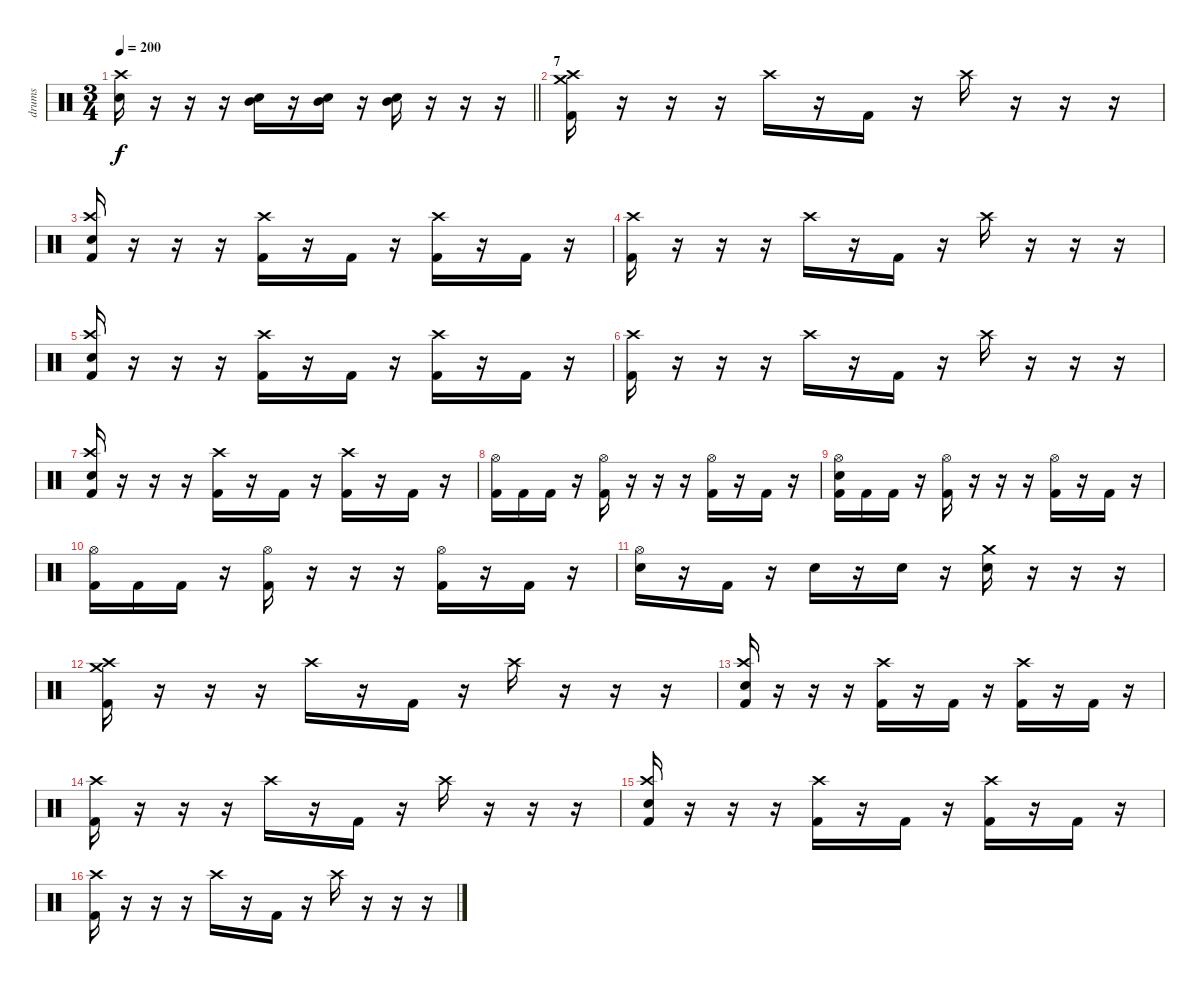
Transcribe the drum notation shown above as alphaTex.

\track ("drums" "drums") {instrument percussion}
\staff {score}
\articulation defaults
\ts (3 4)
\tempo 200
\clef neutral
\barLineRight lightlight
\ks c
("Electric Snare (hit)" "Crash high (hit)").16{dy f} r.16 r.16 r.16 ("Electric Snare (hit)" "Mid Tom (hit)").16 r.16 ("Electric Snare (hit)" "Mid Tom (hit)").16 r.16 ("Electric Snare (hit)" "Mid Tom (hit)").16 r.16 r.16 r.16 |
\section ("" "7")
("Kick (hit) 2" "Crash high (hit)" "Crash medium (hit)").16 r.16 r.16 r.16 "Crash high (hit)".16 r.16 "Kick (hit) 2".16 r.16 "Crash high (hit)".16 r.16 r.16 r.16 |
("Crash high (hit)" "Electric Snare (hit)" "Kick (hit) 2").16 r.16 r.16 r.16 ("Crash high (hit)" "Kick (hit) 2").16 r.16 "Kick (hit) 2".16 r.16 ("Crash high (hit)" "Kick (hit) 2").16 r.16 "Kick (hit) 2".16 r.16 |
("Kick (hit) 2" "Crash high (hit)").16 r.16 r.16 r.16 "Crash high (hit)".16 r.16 "Kick (hit) 2".16 r.16 "Crash high (hit)".16 r.16 r.16 r.16 |
("Crash high (hit)" "Electric Snare (hit)" "Kick (hit) 2").16 r.16 r.16 r.16 ("Crash high (hit)" "Kick (hit) 2").16 r.16 "Kick (hit) 2".16 r.16 ("Crash high (hit)" "Kick (hit) 2").16 r.16 "Kick (hit) 2".16 r.16 |
("Kick (hit) 2" "Crash high (hit)").16 r.16 r.16 r.16 "Crash high (hit)".16 r.16 "Kick (hit) 2".16 r.16 "Crash high (hit)".16 r.16 r.16 r.16 |
("Crash high (hit)" "Electric Snare (hit)" "Kick (hit) 2").16 r.16 r.16 r.16 ("Crash high (hit)" "Kick (hit) 2").16 r.16 "Kick (hit) 2".16 r.16 ("Crash high (hit)" "Kick (hit) 2").16 r.16 "Kick (hit) 2".16 r.16 |
("Kick (hit) 2" "Hi-Hat (open)").16 "Kick (hit) 2".16 "Kick (hit) 2".16 r.16 ("Hi-Hat (open)" "Kick (hit) 2").16 r.16 r.16 r.16 ("Hi-Hat (open)" "Kick (hit) 2").16 r.16 "Kick (hit) 2".16 r.16 |
("Kick (hit) 2" "Hi-Hat (open)" "Electric Snare (hit)").16 "Kick (hit) 2".16 "Kick (hit) 2".16 r.16 ("Hi-Hat (open)" "Kick (hit) 2").16 r.16 r.16 r.16 ("Hi-Hat (open)" "Kick (hit) 2").16 r.16 "Kick (hit) 2".16 r.16 |
("Kick (hit) 2" "Hi-Hat (open)").16 "Kick (hit) 2".16 "Kick (hit) 2".16 r.16 ("Hi-Hat (open)" "Kick (hit) 2").16 r.16 r.16 r.16 ("Hi-Hat (open)" "Kick (hit) 2").16 r.16 "Kick (hit) 2".16 r.16 |
("Electric Snare (hit)" "Hi-Hat (open)").16 r.16 "Kick (hit) 2".16 r.16 "Electric Snare (hit)".16 r.16 "Electric Snare (hit)".16 r.16 ("Crash medium (hit)" "Electric Snare (hit)").16 r.16 r.16 r.16 |
("Kick (hit) 2" "Crash high (hit)" "Crash medium (hit)").16 r.16 r.16 r.16 "Crash high (hit)".16 r.16 "Kick (hit) 2".16 r.16 "Crash high (hit)".16 r.16 r.16 r.16 |
("Crash high (hit)" "Electric Snare (hit)" "Kick (hit) 2").16 r.16 r.16 r.16 ("Crash high (hit)" "Kick (hit) 2").16 r.16 "Kick (hit) 2".16 r.16 ("Crash high (hit)" "Kick (hit) 2").16 r.16 "Kick (hit) 2".16 r.16 |
("Kick (hit) 2" "Crash high (hit)").16 r.16 r.16 r.16 "Crash high (hit)".16 r.16 "Kick (hit) 2".16 r.16 "Crash high (hit)".16 r.16 r.16 r.16 |
("Crash high (hit)" "Electric Snare (hit)" "Kick (hit) 2").16 r.16 r.16 r.16 ("Crash high (hit)" "Kick (hit) 2").16 r.16 "Kick (hit) 2".16 r.16 ("Crash high (hit)" "Kick (hit) 2").16 r.16 "Kick (hit) 2".16 r.16 |
("Kick (hit) 2" "Crash high (hit)").16 r.16 r.16 r.16 "Crash high (hit)".16 r.16 "Kick (hit) 2".16 r.16 "Crash high (hit)".16 r.16 r.16 r.16
